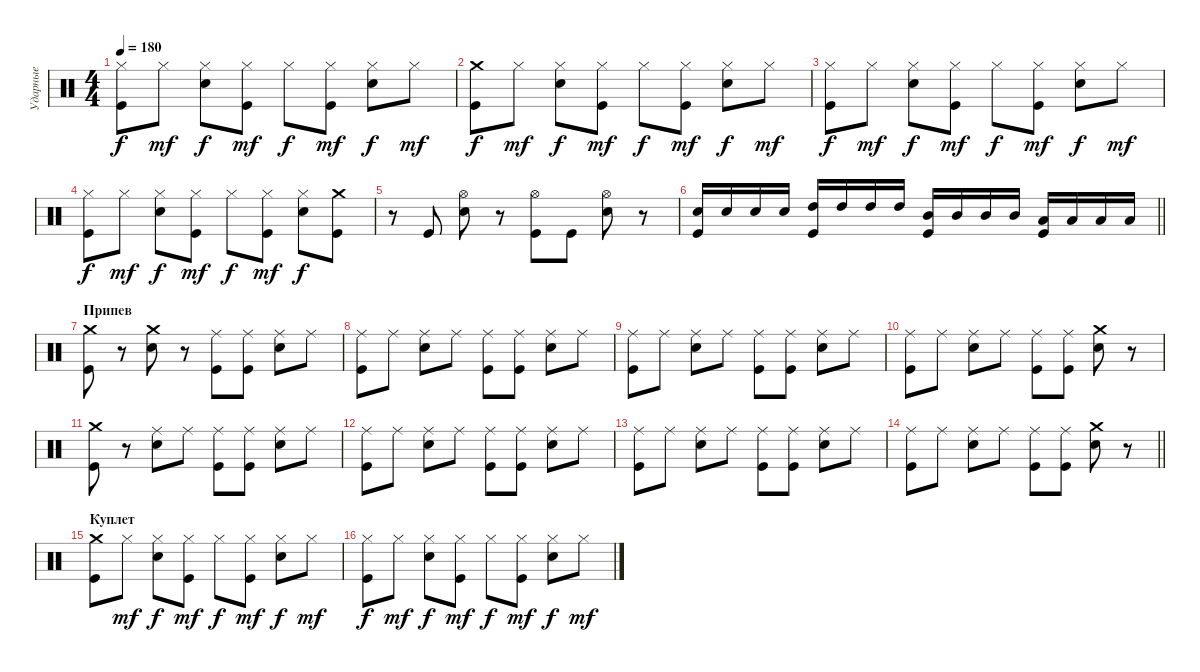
\track ("Ударные" "Ударные") {instrument percussion}
\staff {score}
\articulation defaults
\ts (4 4)
\tempo 180
\clef neutral
\ks c
("Hi-Hat (closed)" "Kick (hit)").8{dy f} "Hi-Hat (closed)".8{dy mf} ("Hi-Hat (closed)" "Electric Snare (hit)").8{dy f} ("Hi-Hat (closed)" "Kick (hit)").8{dy mf} "Hi-Hat (closed)".8{dy f} ("Hi-Hat (closed)" "Kick (hit)").8{dy mf} ("Hi-Hat (closed)" "Electric Snare (hit)").8{dy f} "Hi-Hat (closed)".8{dy mf} |
("Crash medium (hit)" "Kick (hit)").8{dy f} "Hi-Hat (closed)".8{dy mf} ("Hi-Hat (closed)" "Electric Snare (hit)").8{dy f} ("Hi-Hat (closed)" "Kick (hit)").8{dy mf} "Hi-Hat (closed)".8{dy f} ("Hi-Hat (closed)" "Kick (hit)").8{dy mf} ("Hi-Hat (closed)" "Electric Snare (hit)").8{dy f} "Hi-Hat (closed)".8{dy mf} |
("Hi-Hat (closed)" "Kick (hit)").8{dy f} "Hi-Hat (closed)".8{dy mf} ("Hi-Hat (closed)" "Electric Snare (hit)").8{dy f} ("Hi-Hat (closed)" "Kick (hit)").8{dy mf} "Hi-Hat (closed)".8{dy f} ("Hi-Hat (closed)" "Kick (hit)").8{dy mf} ("Hi-Hat (closed)" "Electric Snare (hit)").8{dy f} "Hi-Hat (closed)".8{dy mf} |
("Hi-Hat (closed)" "Kick (hit)").8{dy f} "Hi-Hat (closed)".8{dy mf} ("Hi-Hat (closed)" "Electric Snare (hit)").8{dy f} ("Hi-Hat (closed)" "Kick (hit)").8{dy mf} "Hi-Hat (closed)".8{dy f} ("Hi-Hat (closed)" "Kick (hit)").8{dy mf} ("Hi-Hat (closed)" "Electric Snare (hit)").8{dy f} ("Crash medium (hit)" "Kick (hit)").8 |
r.8 "Kick (hit)".8 ("Hi-Hat (open)" "Electric Snare (hit)").8 r.8 ("Hi-Hat (open)" "Kick (hit)").8 "Kick (hit)".8 ("Hi-Hat (open)" "Electric Snare (hit)").8 r.8 |
\barLineRight lightlight
("Electric Snare (hit)" "Kick (hit)").16 "Electric Snare (hit)".16 "Electric Snare (hit)".16 "Electric Snare (hit)".16 ("High Tom (hit)" "Kick (hit)").16 "High Tom (hit)".16 "High Tom (hit)".16 "High Tom (hit)".16 ("Mid Tom (hit)" "Kick (hit)").16 "Mid Tom (hit)".16 "Mid Tom (hit)".16 "Mid Tom (hit)".16 ("Low Tom (hit)" "Kick (hit)").16 "Low Tom (hit)".16 "Low Tom (hit)".16 "Low Tom (hit)".16 |
\section ("" "Припев")
("Crash medium (hit)" "Kick (hit)").8 r.8 ("Crash medium (hit)" "Electric Snare (hit)").8 r.8 ("Ride (middle)" "Kick (hit)").8 ("Ride (middle)" "Kick (hit)").8 ("Ride (middle)" "Electric Snare (hit)").8 "Ride (middle)".8 |
("Ride (middle)" "Kick (hit)").8 "Ride (middle)".8 ("Ride (middle)" "Electric Snare (hit)").8 "Ride (middle)".8 ("Ride (middle)" "Kick (hit)").8 ("Ride (middle)" "Kick (hit)").8 ("Ride (middle)" "Electric Snare (hit)").8 "Ride (middle)".8 |
("Ride (middle)" "Kick (hit)").8 "Ride (middle)".8 ("Ride (middle)" "Electric Snare (hit)").8 "Ride (middle)".8 ("Ride (middle)" "Kick (hit)").8 ("Ride (middle)" "Kick (hit)").8 ("Ride (middle)" "Electric Snare (hit)").8 "Ride (middle)".8 |
("Ride (middle)" "Kick (hit)").8 "Ride (middle)".8 ("Ride (middle)" "Electric Snare (hit)").8 "Ride (middle)".8 ("Ride (middle)" "Kick (hit)").8 ("Ride (middle)" "Kick (hit)").8 ("Crash medium (hit)" "Electric Snare (hit)").8 r.8 |
("Crash medium (hit)" "Kick (hit)").8 r.8 ("Ride (middle)" "Electric Snare (hit)").8 "Ride (middle)".8 ("Ride (middle)" "Kick (hit)").8 ("Ride (middle)" "Kick (hit)").8 ("Ride (middle)" "Electric Snare (hit)").8 "Ride (middle)".8 |
("Ride (middle)" "Kick (hit)").8 "Ride (middle)".8 ("Ride (middle)" "Electric Snare (hit)").8 "Ride (middle)".8 ("Ride (middle)" "Kick (hit)").8 ("Ride (middle)" "Kick (hit)").8 ("Ride (middle)" "Electric Snare (hit)").8 "Ride (middle)".8 |
("Ride (middle)" "Kick (hit)").8 "Ride (middle)".8 ("Ride (middle)" "Electric Snare (hit)").8 "Ride (middle)".8 ("Ride (middle)" "Kick (hit)").8 ("Ride (middle)" "Kick (hit)").8 ("Ride (middle)" "Electric Snare (hit)").8 "Ride (middle)".8 |
\barLineRight lightlight
("Ride (middle)" "Kick (hit)").8 "Ride (middle)".8 ("Ride (middle)" "Electric Snare (hit)").8 "Ride (middle)".8 ("Ride (middle)" "Kick (hit)").8 ("Ride (middle)" "Kick (hit)").8 ("Crash medium (hit)" "Electric Snare (hit)").8 r.8 |
\section ("" "Куплет")
("Crash medium (hit)" "Kick (hit)").8 "Hi-Hat (closed)".8{dy mf} ("Hi-Hat (closed)" "Electric Snare (hit)").8{dy f} ("Hi-Hat (closed)" "Kick (hit)").8{dy mf} "Hi-Hat (closed)".8{dy f} ("Hi-Hat (closed)" "Kick (hit)").8{dy mf} ("Hi-Hat (closed)" "Electric Snare (hit)").8{dy f} "Hi-Hat (closed)".8{dy mf} |
("Hi-Hat (closed)" "Kick (hit)").8{dy f} "Hi-Hat (closed)".8{dy mf} ("Hi-Hat (closed)" "Electric Snare (hit)").8{dy f} ("Hi-Hat (closed)" "Kick (hit)").8{dy mf} "Hi-Hat (closed)".8{dy f} ("Hi-Hat (closed)" "Kick (hit)").8{dy mf} ("Hi-Hat (closed)" "Electric Snare (hit)").8{dy f} "Hi-Hat (closed)".8{dy mf}
